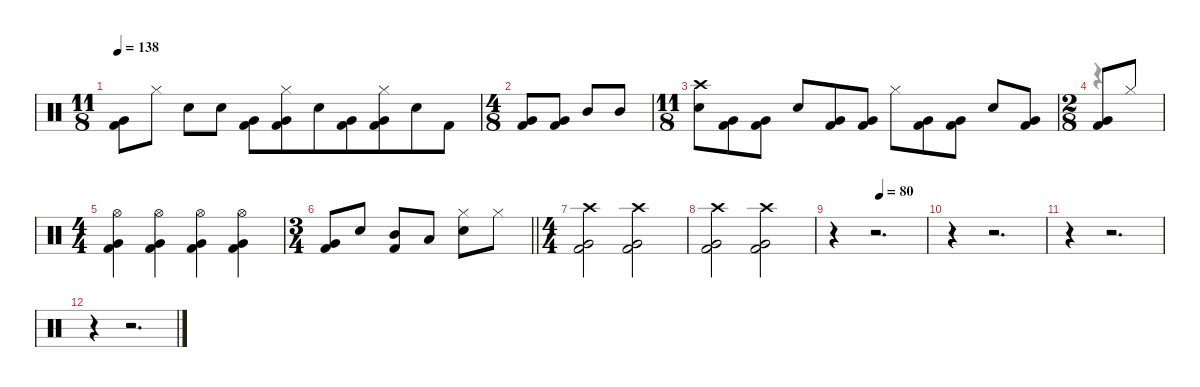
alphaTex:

\defaultSystemsLayout 4
\hideDynamics
\bracketExtendMode nobrackets
\singleTrackTrackNamePolicy hidden
\multiTrackTrackNamePolicy hidden
\otherSystemsTrackNameOrientation horizontal
\track ("Drums" "drm.") {instrument percussion}
\staff {score}
\articulation defaults
\voice
\ts (11 8)
\beaming (8 2 2 7)
\tempo 138
\clef neutral
\ks c
("Very Low Tom (hit)" "Kick (hit) 2").8{dy f beam Down} "Hi-Hat (closed)".8{beam Down} "Snare (hit) 2".8{beam Down} "Snare (hit) 2".8{beam Down} ("Very Low Tom (hit)" "Kick (hit) 2").8{beam Down} ("Hi-Hat (closed)" "Very Low Tom (hit)" "Kick (hit) 2").8{beam Down} "Snare (hit) 2".8{beam Down} ("Very Low Tom (hit)" "Kick (hit) 2").8{beam Down} ("Hi-Hat (closed)" "Very Low Tom (hit)" "Kick (hit) 2").8{beam Down} "Snare (hit) 2".8{beam Down} "Kick (hit) 2".8{beam Down} |
\ts (4 8)
\beaming (8 2 2)
("Very Low Tom (hit)" "Kick (hit) 2").8{beam Up} ("Very Low Tom (hit)" "Kick (hit) 2").8{beam Up} "Mid Tom (hit)".8{beam Up} "Mid Tom (hit)".8{beam Up} |
\ts (11 8)
\beaming (8 3 3 3 2)
("Crash high (hit)" "Snare (hit) 2").8{beam Down} ("Very Low Tom (hit)" "Kick (hit) 2").8{beam Down} ("Very Low Tom (hit)" "Kick (hit) 2").8{beam Down} "Snare (hit) 2".8{beam Up} ("Very Low Tom (hit)" "Kick (hit) 2").8{beam Up} ("Very Low Tom (hit)" "Kick (hit) 2").8{beam Up} "Hi-Hat (closed)".8{beam Down} ("Very Low Tom (hit)" "Kick (hit) 2").8{beam Down} ("Very Low Tom (hit)" "Kick (hit) 2").8{beam Down} "Snare (hit) 2".8{beam Up} ("Very Low Tom (hit)" "Kick (hit) 2").8{beam Up} |
\ts (2 8)
\beaming (8 2)
("Very Low Tom (hit)" "Kick (hit) 2").8{beam Up} "Hi-Hat (closed)".8{beam Up} |
\ts (4 4)
\beaming (8 2 2 2 2)
("Hi-Hat (open)" "Very Low Tom (hit)" "Kick (hit) 2").4{dy ff beam Down} ("Hi-Hat (open)" "Very Low Tom (hit)" "Kick (hit) 2").4{beam Down} ("Hi-Hat (open)" "Very Low Tom (hit)" "Kick (hit) 2").4{beam Down} ("Hi-Hat (open)" "Very Low Tom (hit)" "Kick (hit) 2").4{beam Down} |
\ts (3 4)
\beaming (8 2 2 2)
\barLineRight lightlight
("Very Low Tom (hit)" "Kick (hit) 2").8{dy f beam Up} "Snare (hit) 2".8{beam Up} ("Mid Tom (hit)" "Kick (hit) 2").8{beam Up} "Low Tom (hit)".8{beam Up} ("Hi-Hat (closed)" "Snare (hit) 2").8{beam Down} "Hi-Hat (closed)".8{beam Down} |
\ts (4 4)
\beaming (8 2 2 2 2)
("Crash high (hit)" "Very Low Tom (hit)" "Kick (hit) 2").2{dy ff beam Down} ("Crash high (hit)" "Very Low Tom (hit)" "Kick (hit) 2").2{beam Down} |
("Crash high (hit)" "Very Low Tom (hit)" "Kick (hit) 2").2{beam Down} ("Crash high (hit)" "Very Low Tom (hit)" "Kick (hit) 2").2{beam Down} |
\tempo (80 0.5)
r.4{beam Down} r.2{d beam Down} |
r.4{beam Down} r.2{d beam Down} |
r.4{beam Down} r.2{d beam Down} |
r.4{beam Down} r.2{d beam Down}
\voice
\clef neutral
\ottava regular
\simile none
\ks c
|
|
|
r.4{dy mf beam Down} |
|
\barLineRight lightlight
|
|
|
|
|
|
